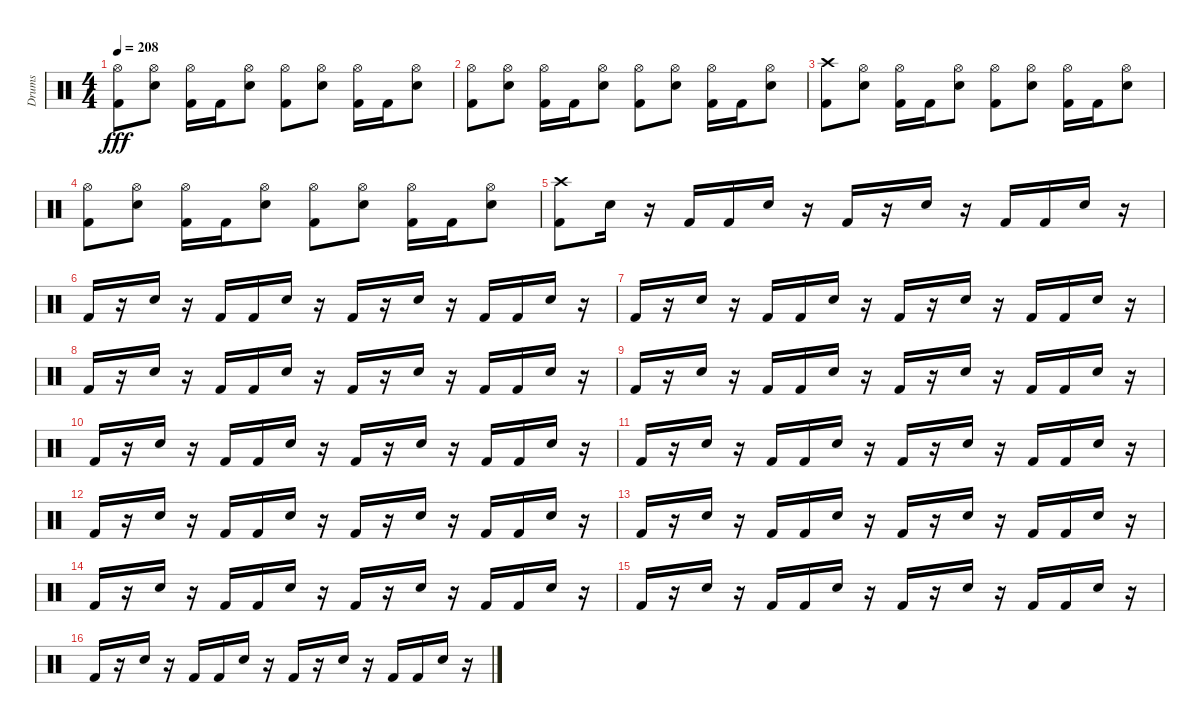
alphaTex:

\track ("Drums" "Drums") {instrument percussion}
\staff {score}
\articulation defaults
\ts (4 4)
\tempo 208
\clef neutral
\ks c
("Hi-Hat (open)" "Kick (hit) 2").8{dy fff} ("Electric Snare (hit)" "Hi-Hat (open)").8 ("Hi-Hat (open)" "Kick (hit) 2").16 "Kick (hit) 2".16 ("Electric Snare (hit)" "Hi-Hat (open)").8 ("Hi-Hat (open)" "Kick (hit) 2").8 ("Electric Snare (hit)" "Hi-Hat (open)").8 ("Hi-Hat (open)" "Kick (hit) 2").16 "Kick (hit) 2".16 ("Electric Snare (hit)" "Hi-Hat (open)").8 |
("Hi-Hat (open)" "Kick (hit) 2").8 ("Electric Snare (hit)" "Hi-Hat (open)").8 ("Hi-Hat (open)" "Kick (hit) 2").16 "Kick (hit) 2".16 ("Electric Snare (hit)" "Hi-Hat (open)").8 ("Hi-Hat (open)" "Kick (hit) 2").8 ("Electric Snare (hit)" "Hi-Hat (open)").8 ("Hi-Hat (open)" "Kick (hit) 2").16 "Kick (hit) 2".16 ("Electric Snare (hit)" "Hi-Hat (open)").8 |
("Kick (hit) 2" "Crash high (hit)").8 ("Electric Snare (hit)" "Hi-Hat (open)").8 ("Hi-Hat (open)" "Kick (hit) 2").16 "Kick (hit) 2".16 ("Electric Snare (hit)" "Hi-Hat (open)").8 ("Hi-Hat (open)" "Kick (hit) 2").8 ("Electric Snare (hit)" "Hi-Hat (open)").8 ("Hi-Hat (open)" "Kick (hit) 2").16 "Kick (hit) 2".16 ("Electric Snare (hit)" "Hi-Hat (open)").8 |
("Hi-Hat (open)" "Kick (hit) 2").8 ("Electric Snare (hit)" "Hi-Hat (open)").8 ("Hi-Hat (open)" "Kick (hit) 2").16 "Kick (hit) 2".16 ("Electric Snare (hit)" "Hi-Hat (open)").8 ("Hi-Hat (open)" "Kick (hit) 2").8 ("Electric Snare (hit)" "Hi-Hat (open)").8 ("Hi-Hat (open)" "Kick (hit) 2").16 "Kick (hit) 2".16 ("Electric Snare (hit)" "Hi-Hat (open)").8 |
("Crash high (hit)" "Kick (hit) 2").8 "Electric Snare (hit)".16 r.16 "Kick (hit) 2".16 "Kick (hit) 2".16 "Electric Snare (hit)".16 r.16 "Kick (hit) 2".16 r.16 "Electric Snare (hit)".16 r.16 "Kick (hit) 2".16 "Kick (hit) 2".16 "Electric Snare (hit)".16 r.16 |
"Kick (hit) 2".16 r.16 "Electric Snare (hit)".16 r.16 "Kick (hit) 2".16 "Kick (hit) 2".16 "Electric Snare (hit)".16 r.16 "Kick (hit) 2".16 r.16 "Electric Snare (hit)".16 r.16 "Kick (hit) 2".16 "Kick (hit) 2".16 "Electric Snare (hit)".16 r.16 |
"Kick (hit) 2".16 r.16 "Electric Snare (hit)".16 r.16 "Kick (hit) 2".16 "Kick (hit) 2".16 "Electric Snare (hit)".16 r.16 "Kick (hit) 2".16 r.16 "Electric Snare (hit)".16 r.16 "Kick (hit) 2".16 "Kick (hit) 2".16 "Electric Snare (hit)".16 r.16 |
"Kick (hit) 2".16 r.16 "Electric Snare (hit)".16 r.16 "Kick (hit) 2".16 "Kick (hit) 2".16 "Electric Snare (hit)".16 r.16 "Kick (hit) 2".16 r.16 "Electric Snare (hit)".16 r.16 "Kick (hit) 2".16 "Kick (hit) 2".16 "Electric Snare (hit)".16 r.16 |
"Kick (hit) 2".16 r.16 "Electric Snare (hit)".16 r.16 "Kick (hit) 2".16 "Kick (hit) 2".16 "Electric Snare (hit)".16 r.16 "Kick (hit) 2".16 r.16 "Electric Snare (hit)".16 r.16 "Kick (hit) 2".16 "Kick (hit) 2".16 "Electric Snare (hit)".16 r.16 |
"Kick (hit) 2".16 r.16 "Electric Snare (hit)".16 r.16 "Kick (hit) 2".16 "Kick (hit) 2".16 "Electric Snare (hit)".16 r.16 "Kick (hit) 2".16 r.16 "Electric Snare (hit)".16 r.16 "Kick (hit) 2".16 "Kick (hit) 2".16 "Electric Snare (hit)".16 r.16 |
"Kick (hit) 2".16 r.16 "Electric Snare (hit)".16 r.16 "Kick (hit) 2".16 "Kick (hit) 2".16 "Electric Snare (hit)".16 r.16 "Kick (hit) 2".16 r.16 "Electric Snare (hit)".16 r.16 "Kick (hit) 2".16 "Kick (hit) 2".16 "Electric Snare (hit)".16 r.16 |
"Kick (hit) 2".16 r.16 "Electric Snare (hit)".16 r.16 "Kick (hit) 2".16 "Kick (hit) 2".16 "Electric Snare (hit)".16 r.16 "Kick (hit) 2".16 r.16 "Electric Snare (hit)".16 r.16 "Kick (hit) 2".16 "Kick (hit) 2".16 "Electric Snare (hit)".16 r.16 |
"Kick (hit) 2".16 r.16 "Electric Snare (hit)".16 r.16 "Kick (hit) 2".16 "Kick (hit) 2".16 "Electric Snare (hit)".16 r.16 "Kick (hit) 2".16 r.16 "Electric Snare (hit)".16 r.16 "Kick (hit) 2".16 "Kick (hit) 2".16 "Electric Snare (hit)".16 r.16 |
"Kick (hit) 2".16 r.16 "Electric Snare (hit)".16 r.16 "Kick (hit) 2".16 "Kick (hit) 2".16 "Electric Snare (hit)".16 r.16 "Kick (hit) 2".16 r.16 "Electric Snare (hit)".16 r.16 "Kick (hit) 2".16 "Kick (hit) 2".16 "Electric Snare (hit)".16 r.16 |
"Kick (hit) 2".16 r.16 "Electric Snare (hit)".16 r.16 "Kick (hit) 2".16 "Kick (hit) 2".16 "Electric Snare (hit)".16 r.16 "Kick (hit) 2".16 r.16 "Electric Snare (hit)".16 r.16 "Kick (hit) 2".16 "Kick (hit) 2".16 "Electric Snare (hit)".16 r.16 |
"Kick (hit) 2".16 r.16 "Electric Snare (hit)".16 r.16 "Kick (hit) 2".16 "Kick (hit) 2".16 "Electric Snare (hit)".16 r.16 "Kick (hit) 2".16 r.16 "Electric Snare (hit)".16 r.16 "Kick (hit) 2".16 "Kick (hit) 2".16 "Electric Snare (hit)".16 r.16
